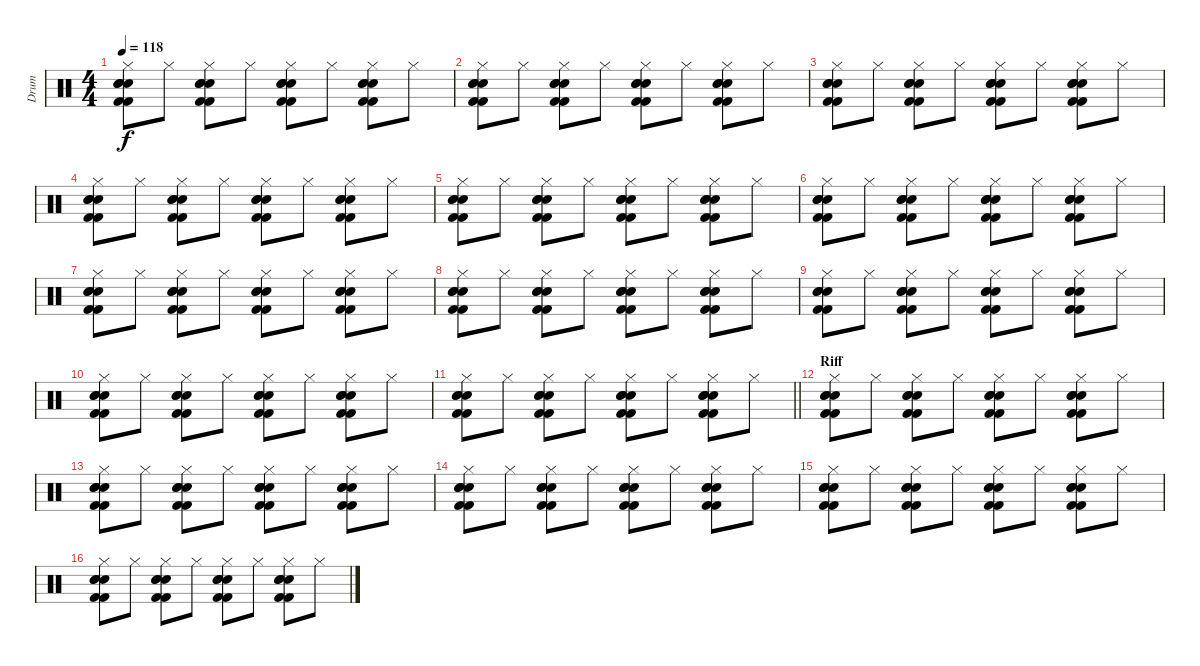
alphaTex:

\track ("Drum" "Drum") {instrument percussion}
\staff {score}
\articulation defaults
\ts (4 4)
\tempo 118
\clef neutral
\ks c
("Hi-Hat (closed)" "Kick (hit) 2" "Kick (hit) 2" "Snare (hit) 2" "Snare (hit) 2" "Snare (hit) 2").8{dy f} "Hi-Hat (closed)".8 ("Hi-Hat (closed)" "Kick (hit) 2" "Kick (hit) 2" "Snare (hit) 2" "Snare (hit) 2" "Snare (hit) 2").8 "Hi-Hat (closed)".8 ("Hi-Hat (closed)" "Kick (hit) 2" "Kick (hit) 2" "Snare (hit) 2" "Snare (hit) 2" "Snare (hit) 2").8 "Hi-Hat (closed)".8 ("Hi-Hat (closed)" "Kick (hit) 2" "Kick (hit) 2" "Snare (hit) 2" "Snare (hit) 2" "Snare (hit) 2").8 "Hi-Hat (closed)".8 |
("Hi-Hat (closed)" "Kick (hit) 2" "Kick (hit) 2" "Snare (hit) 2" "Snare (hit) 2" "Snare (hit) 2").8 "Hi-Hat (closed)".8 ("Hi-Hat (closed)" "Kick (hit) 2" "Kick (hit) 2" "Snare (hit) 2" "Snare (hit) 2" "Snare (hit) 2").8 "Hi-Hat (closed)".8 ("Hi-Hat (closed)" "Kick (hit) 2" "Kick (hit) 2" "Snare (hit) 2" "Snare (hit) 2" "Snare (hit) 2").8 "Hi-Hat (closed)".8 ("Hi-Hat (closed)" "Kick (hit) 2" "Kick (hit) 2" "Snare (hit) 2" "Snare (hit) 2" "Snare (hit) 2").8 "Hi-Hat (closed)".8 |
("Hi-Hat (closed)" "Kick (hit) 2" "Kick (hit) 2" "Snare (hit) 2" "Snare (hit) 2" "Snare (hit) 2").8 "Hi-Hat (closed)".8 ("Hi-Hat (closed)" "Kick (hit) 2" "Kick (hit) 2" "Snare (hit) 2" "Snare (hit) 2" "Snare (hit) 2").8 "Hi-Hat (closed)".8 ("Hi-Hat (closed)" "Kick (hit) 2" "Kick (hit) 2" "Snare (hit) 2" "Snare (hit) 2" "Snare (hit) 2").8 "Hi-Hat (closed)".8 ("Hi-Hat (closed)" "Kick (hit) 2" "Kick (hit) 2" "Snare (hit) 2" "Snare (hit) 2" "Snare (hit) 2").8 "Hi-Hat (closed)".8 |
("Hi-Hat (closed)" "Kick (hit) 2" "Kick (hit) 2" "Snare (hit) 2" "Snare (hit) 2" "Snare (hit) 2").8 "Hi-Hat (closed)".8 ("Hi-Hat (closed)" "Kick (hit) 2" "Kick (hit) 2" "Snare (hit) 2" "Snare (hit) 2" "Snare (hit) 2").8 "Hi-Hat (closed)".8 ("Hi-Hat (closed)" "Kick (hit) 2" "Kick (hit) 2" "Snare (hit) 2" "Snare (hit) 2" "Snare (hit) 2").8 "Hi-Hat (closed)".8 ("Hi-Hat (closed)" "Kick (hit) 2" "Kick (hit) 2" "Snare (hit) 2" "Snare (hit) 2" "Snare (hit) 2").8 "Hi-Hat (closed)".8 |
("Hi-Hat (closed)" "Kick (hit) 2" "Kick (hit) 2" "Snare (hit) 2" "Snare (hit) 2" "Snare (hit) 2").8 "Hi-Hat (closed)".8 ("Hi-Hat (closed)" "Kick (hit) 2" "Kick (hit) 2" "Snare (hit) 2" "Snare (hit) 2" "Snare (hit) 2").8 "Hi-Hat (closed)".8 ("Hi-Hat (closed)" "Kick (hit) 2" "Kick (hit) 2" "Snare (hit) 2" "Snare (hit) 2" "Snare (hit) 2").8 "Hi-Hat (closed)".8 ("Hi-Hat (closed)" "Kick (hit) 2" "Kick (hit) 2" "Snare (hit) 2" "Snare (hit) 2" "Snare (hit) 2").8 "Hi-Hat (closed)".8 |
("Hi-Hat (closed)" "Kick (hit) 2" "Kick (hit) 2" "Snare (hit) 2" "Snare (hit) 2" "Snare (hit) 2").8 "Hi-Hat (closed)".8 ("Hi-Hat (closed)" "Kick (hit) 2" "Kick (hit) 2" "Snare (hit) 2" "Snare (hit) 2" "Snare (hit) 2").8 "Hi-Hat (closed)".8 ("Hi-Hat (closed)" "Kick (hit) 2" "Kick (hit) 2" "Snare (hit) 2" "Snare (hit) 2" "Snare (hit) 2").8 "Hi-Hat (closed)".8 ("Hi-Hat (closed)" "Kick (hit) 2" "Kick (hit) 2" "Snare (hit) 2" "Snare (hit) 2" "Snare (hit) 2").8 "Hi-Hat (closed)".8 |
("Hi-Hat (closed)" "Kick (hit) 2" "Kick (hit) 2" "Snare (hit) 2" "Snare (hit) 2" "Snare (hit) 2").8 "Hi-Hat (closed)".8 ("Hi-Hat (closed)" "Kick (hit) 2" "Kick (hit) 2" "Snare (hit) 2" "Snare (hit) 2" "Snare (hit) 2").8 "Hi-Hat (closed)".8 ("Hi-Hat (closed)" "Kick (hit) 2" "Kick (hit) 2" "Snare (hit) 2" "Snare (hit) 2" "Snare (hit) 2").8 "Hi-Hat (closed)".8 ("Hi-Hat (closed)" "Kick (hit) 2" "Kick (hit) 2" "Snare (hit) 2" "Snare (hit) 2" "Snare (hit) 2").8 "Hi-Hat (closed)".8 |
("Hi-Hat (closed)" "Kick (hit) 2" "Kick (hit) 2" "Snare (hit) 2" "Snare (hit) 2" "Snare (hit) 2").8 "Hi-Hat (closed)".8 ("Hi-Hat (closed)" "Kick (hit) 2" "Kick (hit) 2" "Snare (hit) 2" "Snare (hit) 2" "Snare (hit) 2").8 "Hi-Hat (closed)".8 ("Hi-Hat (closed)" "Kick (hit) 2" "Kick (hit) 2" "Snare (hit) 2" "Snare (hit) 2" "Snare (hit) 2").8 "Hi-Hat (closed)".8 ("Hi-Hat (closed)" "Kick (hit) 2" "Kick (hit) 2" "Snare (hit) 2" "Snare (hit) 2" "Snare (hit) 2").8 "Hi-Hat (closed)".8 |
("Hi-Hat (closed)" "Kick (hit) 2" "Kick (hit) 2" "Snare (hit) 2" "Snare (hit) 2" "Snare (hit) 2").8 "Hi-Hat (closed)".8 ("Hi-Hat (closed)" "Kick (hit) 2" "Kick (hit) 2" "Snare (hit) 2" "Snare (hit) 2" "Snare (hit) 2").8 "Hi-Hat (closed)".8 ("Hi-Hat (closed)" "Kick (hit) 2" "Kick (hit) 2" "Snare (hit) 2" "Snare (hit) 2" "Snare (hit) 2").8 "Hi-Hat (closed)".8 ("Hi-Hat (closed)" "Kick (hit) 2" "Kick (hit) 2" "Snare (hit) 2" "Snare (hit) 2" "Snare (hit) 2").8 "Hi-Hat (closed)".8 |
("Hi-Hat (closed)" "Kick (hit) 2" "Kick (hit) 2" "Snare (hit) 2" "Snare (hit) 2" "Snare (hit) 2").8 "Hi-Hat (closed)".8 ("Hi-Hat (closed)" "Kick (hit) 2" "Kick (hit) 2" "Snare (hit) 2" "Snare (hit) 2" "Snare (hit) 2").8 "Hi-Hat (closed)".8 ("Hi-Hat (closed)" "Kick (hit) 2" "Kick (hit) 2" "Snare (hit) 2" "Snare (hit) 2" "Snare (hit) 2").8 "Hi-Hat (closed)".8 ("Hi-Hat (closed)" "Kick (hit) 2" "Kick (hit) 2" "Snare (hit) 2" "Snare (hit) 2" "Snare (hit) 2").8 "Hi-Hat (closed)".8 |
\barLineRight lightlight
("Hi-Hat (closed)" "Kick (hit) 2" "Kick (hit) 2" "Snare (hit) 2" "Snare (hit) 2" "Snare (hit) 2").8 "Hi-Hat (closed)".8 ("Hi-Hat (closed)" "Kick (hit) 2" "Kick (hit) 2" "Snare (hit) 2" "Snare (hit) 2" "Snare (hit) 2").8 "Hi-Hat (closed)".8 ("Hi-Hat (closed)" "Kick (hit) 2" "Kick (hit) 2" "Snare (hit) 2" "Snare (hit) 2" "Snare (hit) 2").8 "Hi-Hat (closed)".8 ("Hi-Hat (closed)" "Kick (hit) 2" "Kick (hit) 2" "Snare (hit) 2" "Snare (hit) 2" "Snare (hit) 2").8 "Hi-Hat (closed)".8 |
\section ("" "Riff")
("Hi-Hat (closed)" "Kick (hit) 2" "Kick (hit) 2" "Snare (hit) 2" "Snare (hit) 2" "Snare (hit) 2").8 "Hi-Hat (closed)".8 ("Hi-Hat (closed)" "Kick (hit) 2" "Kick (hit) 2" "Snare (hit) 2" "Snare (hit) 2" "Snare (hit) 2").8 "Hi-Hat (closed)".8 ("Hi-Hat (closed)" "Kick (hit) 2" "Kick (hit) 2" "Snare (hit) 2" "Snare (hit) 2" "Snare (hit) 2").8 "Hi-Hat (closed)".8 ("Hi-Hat (closed)" "Kick (hit) 2" "Kick (hit) 2" "Snare (hit) 2" "Snare (hit) 2" "Snare (hit) 2").8 "Hi-Hat (closed)".8 |
("Hi-Hat (closed)" "Kick (hit) 2" "Kick (hit) 2" "Snare (hit) 2" "Snare (hit) 2" "Snare (hit) 2").8 "Hi-Hat (closed)".8 ("Hi-Hat (closed)" "Kick (hit) 2" "Kick (hit) 2" "Snare (hit) 2" "Snare (hit) 2" "Snare (hit) 2").8 "Hi-Hat (closed)".8 ("Hi-Hat (closed)" "Kick (hit) 2" "Kick (hit) 2" "Snare (hit) 2" "Snare (hit) 2" "Snare (hit) 2").8 "Hi-Hat (closed)".8 ("Hi-Hat (closed)" "Kick (hit) 2" "Kick (hit) 2" "Snare (hit) 2" "Snare (hit) 2" "Snare (hit) 2").8 "Hi-Hat (closed)".8 |
("Hi-Hat (closed)" "Kick (hit) 2" "Kick (hit) 2" "Snare (hit) 2" "Snare (hit) 2" "Snare (hit) 2").8 "Hi-Hat (closed)".8 ("Hi-Hat (closed)" "Kick (hit) 2" "Kick (hit) 2" "Snare (hit) 2" "Snare (hit) 2" "Snare (hit) 2").8 "Hi-Hat (closed)".8 ("Hi-Hat (closed)" "Kick (hit) 2" "Kick (hit) 2" "Snare (hit) 2" "Snare (hit) 2" "Snare (hit) 2").8 "Hi-Hat (closed)".8 ("Hi-Hat (closed)" "Kick (hit) 2" "Kick (hit) 2" "Snare (hit) 2" "Snare (hit) 2" "Snare (hit) 2").8 "Hi-Hat (closed)".8 |
("Hi-Hat (closed)" "Kick (hit) 2" "Kick (hit) 2" "Snare (hit) 2" "Snare (hit) 2" "Snare (hit) 2").8 "Hi-Hat (closed)".8 ("Hi-Hat (closed)" "Kick (hit) 2" "Kick (hit) 2" "Snare (hit) 2" "Snare (hit) 2" "Snare (hit) 2").8 "Hi-Hat (closed)".8 ("Hi-Hat (closed)" "Kick (hit) 2" "Kick (hit) 2" "Snare (hit) 2" "Snare (hit) 2" "Snare (hit) 2").8 "Hi-Hat (closed)".8 ("Hi-Hat (closed)" "Kick (hit) 2" "Kick (hit) 2" "Snare (hit) 2" "Snare (hit) 2" "Snare (hit) 2").8 "Hi-Hat (closed)".8 |
("Hi-Hat (closed)" "Kick (hit) 2" "Kick (hit) 2" "Snare (hit) 2" "Snare (hit) 2" "Snare (hit) 2").8 "Hi-Hat (closed)".8 ("Hi-Hat (closed)" "Kick (hit) 2" "Kick (hit) 2" "Snare (hit) 2" "Snare (hit) 2" "Snare (hit) 2").8 "Hi-Hat (closed)".8 ("Hi-Hat (closed)" "Kick (hit) 2" "Kick (hit) 2" "Snare (hit) 2" "Snare (hit) 2" "Snare (hit) 2").8 "Hi-Hat (closed)".8 ("Hi-Hat (closed)" "Kick (hit) 2" "Kick (hit) 2" "Snare (hit) 2" "Snare (hit) 2" "Snare (hit) 2").8 "Hi-Hat (closed)".8
